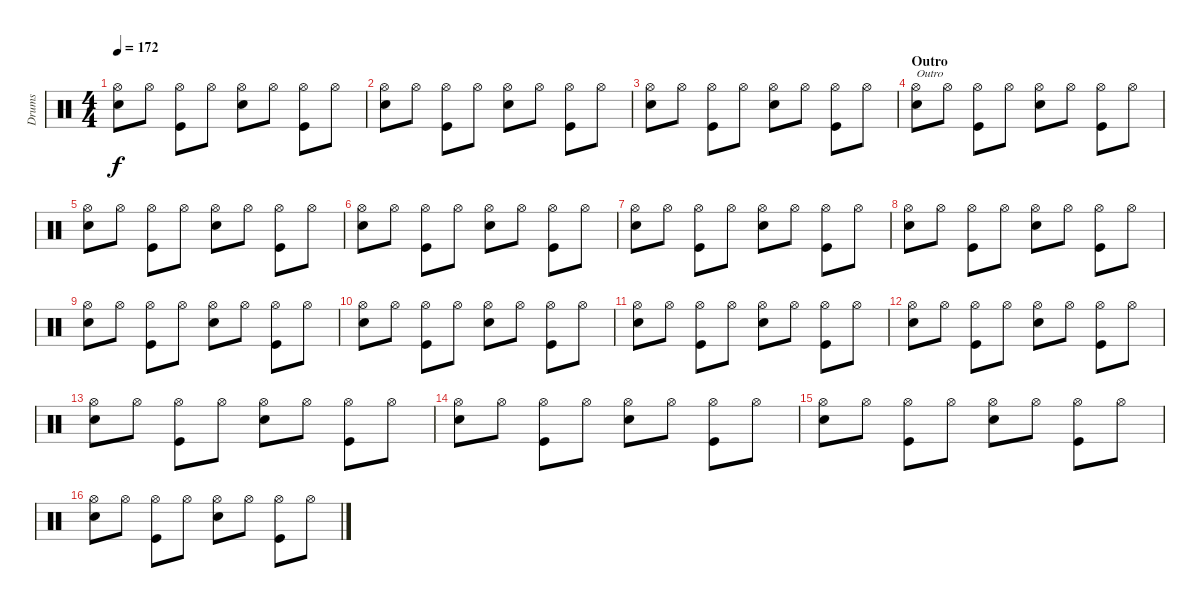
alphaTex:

\track ("Drums" "Drums") {instrument percussion}
\staff {score}
\articulation defaults
\ts (4 4)
\tempo 172
\clef neutral
\ks c
("Snare (hit) 2" "Hi-Hat (open)").8{dy f} "Hi-Hat (open)".8 ("Kick (hit)" "Hi-Hat (open)").8 "Hi-Hat (open)".8 ("Snare (hit) 2" "Hi-Hat (open)").8 "Hi-Hat (open)".8 ("Kick (hit)" "Hi-Hat (open)").8 "Hi-Hat (open)".8 |
("Snare (hit) 2" "Hi-Hat (open)").8 "Hi-Hat (open)".8 ("Kick (hit)" "Hi-Hat (open)").8 "Hi-Hat (open)".8 ("Snare (hit) 2" "Hi-Hat (open)").8 "Hi-Hat (open)".8 ("Kick (hit)" "Hi-Hat (open)").8 "Hi-Hat (open)".8 |
("Snare (hit) 2" "Hi-Hat (open)").8 "Hi-Hat (open)".8 ("Kick (hit)" "Hi-Hat (open)").8 "Hi-Hat (open)".8 ("Snare (hit) 2" "Hi-Hat (open)").8 "Hi-Hat (open)".8 ("Kick (hit)" "Hi-Hat (open)").8 "Hi-Hat (open)".8 |
\section ("" "Outro")
("Snare (hit) 2" "Hi-Hat (open)").8{txt "Outro"} "Hi-Hat (open)".8 ("Kick (hit)" "Hi-Hat (open)").8 "Hi-Hat (open)".8 ("Snare (hit) 2" "Hi-Hat (open)").8 "Hi-Hat (open)".8 ("Kick (hit)" "Hi-Hat (open)").8 "Hi-Hat (open)".8 |
("Snare (hit) 2" "Hi-Hat (open)").8 "Hi-Hat (open)".8 ("Kick (hit)" "Hi-Hat (open)").8 "Hi-Hat (open)".8 ("Snare (hit) 2" "Hi-Hat (open)").8 "Hi-Hat (open)".8 ("Kick (hit)" "Hi-Hat (open)").8 "Hi-Hat (open)".8 |
("Snare (hit) 2" "Hi-Hat (open)").8 "Hi-Hat (open)".8 ("Kick (hit)" "Hi-Hat (open)").8 "Hi-Hat (open)".8 ("Snare (hit) 2" "Hi-Hat (open)").8 "Hi-Hat (open)".8 ("Kick (hit)" "Hi-Hat (open)").8 "Hi-Hat (open)".8 |
("Snare (hit) 2" "Hi-Hat (open)").8 "Hi-Hat (open)".8 ("Kick (hit)" "Hi-Hat (open)").8 "Hi-Hat (open)".8 ("Snare (hit) 2" "Hi-Hat (open)").8 "Hi-Hat (open)".8 ("Kick (hit)" "Hi-Hat (open)").8 "Hi-Hat (open)".8 |
("Snare (hit) 2" "Hi-Hat (open)").8 "Hi-Hat (open)".8 ("Kick (hit)" "Hi-Hat (open)").8 "Hi-Hat (open)".8 ("Snare (hit) 2" "Hi-Hat (open)").8 "Hi-Hat (open)".8 ("Kick (hit)" "Hi-Hat (open)").8 "Hi-Hat (open)".8 |
("Snare (hit) 2" "Hi-Hat (open)").8 "Hi-Hat (open)".8 ("Kick (hit)" "Hi-Hat (open)").8 "Hi-Hat (open)".8 ("Snare (hit) 2" "Hi-Hat (open)").8 "Hi-Hat (open)".8 ("Kick (hit)" "Hi-Hat (open)").8 "Hi-Hat (open)".8 |
("Snare (hit) 2" "Hi-Hat (open)").8 "Hi-Hat (open)".8 ("Kick (hit)" "Hi-Hat (open)").8 "Hi-Hat (open)".8 ("Snare (hit) 2" "Hi-Hat (open)").8 "Hi-Hat (open)".8 ("Kick (hit)" "Hi-Hat (open)").8 "Hi-Hat (open)".8 |
("Snare (hit) 2" "Hi-Hat (open)").8 "Hi-Hat (open)".8 ("Kick (hit)" "Hi-Hat (open)").8 "Hi-Hat (open)".8 ("Snare (hit) 2" "Hi-Hat (open)").8 "Hi-Hat (open)".8 ("Kick (hit)" "Hi-Hat (open)").8 "Hi-Hat (open)".8 |
("Snare (hit) 2" "Hi-Hat (open)").8 "Hi-Hat (open)".8 ("Kick (hit)" "Hi-Hat (open)").8 "Hi-Hat (open)".8 ("Snare (hit) 2" "Hi-Hat (open)").8 "Hi-Hat (open)".8 ("Kick (hit)" "Hi-Hat (open)").8 "Hi-Hat (open)".8 |
("Snare (hit) 2" "Hi-Hat (open)").8 "Hi-Hat (open)".8 ("Kick (hit)" "Hi-Hat (open)").8 "Hi-Hat (open)".8 ("Snare (hit) 2" "Hi-Hat (open)").8 "Hi-Hat (open)".8 ("Kick (hit)" "Hi-Hat (open)").8 "Hi-Hat (open)".8 |
("Snare (hit) 2" "Hi-Hat (open)").8 "Hi-Hat (open)".8 ("Kick (hit)" "Hi-Hat (open)").8 "Hi-Hat (open)".8 ("Snare (hit) 2" "Hi-Hat (open)").8 "Hi-Hat (open)".8 ("Kick (hit)" "Hi-Hat (open)").8 "Hi-Hat (open)".8 |
("Snare (hit) 2" "Hi-Hat (open)").8 "Hi-Hat (open)".8 ("Kick (hit)" "Hi-Hat (open)").8 "Hi-Hat (open)".8 ("Snare (hit) 2" "Hi-Hat (open)").8 "Hi-Hat (open)".8 ("Kick (hit)" "Hi-Hat (open)").8 "Hi-Hat (open)".8 |
("Snare (hit) 2" "Hi-Hat (open)").8 "Hi-Hat (open)".8 ("Kick (hit)" "Hi-Hat (open)").8 "Hi-Hat (open)".8 ("Snare (hit) 2" "Hi-Hat (open)").8 "Hi-Hat (open)".8 ("Kick (hit)" "Hi-Hat (open)").8 "Hi-Hat (open)".8
